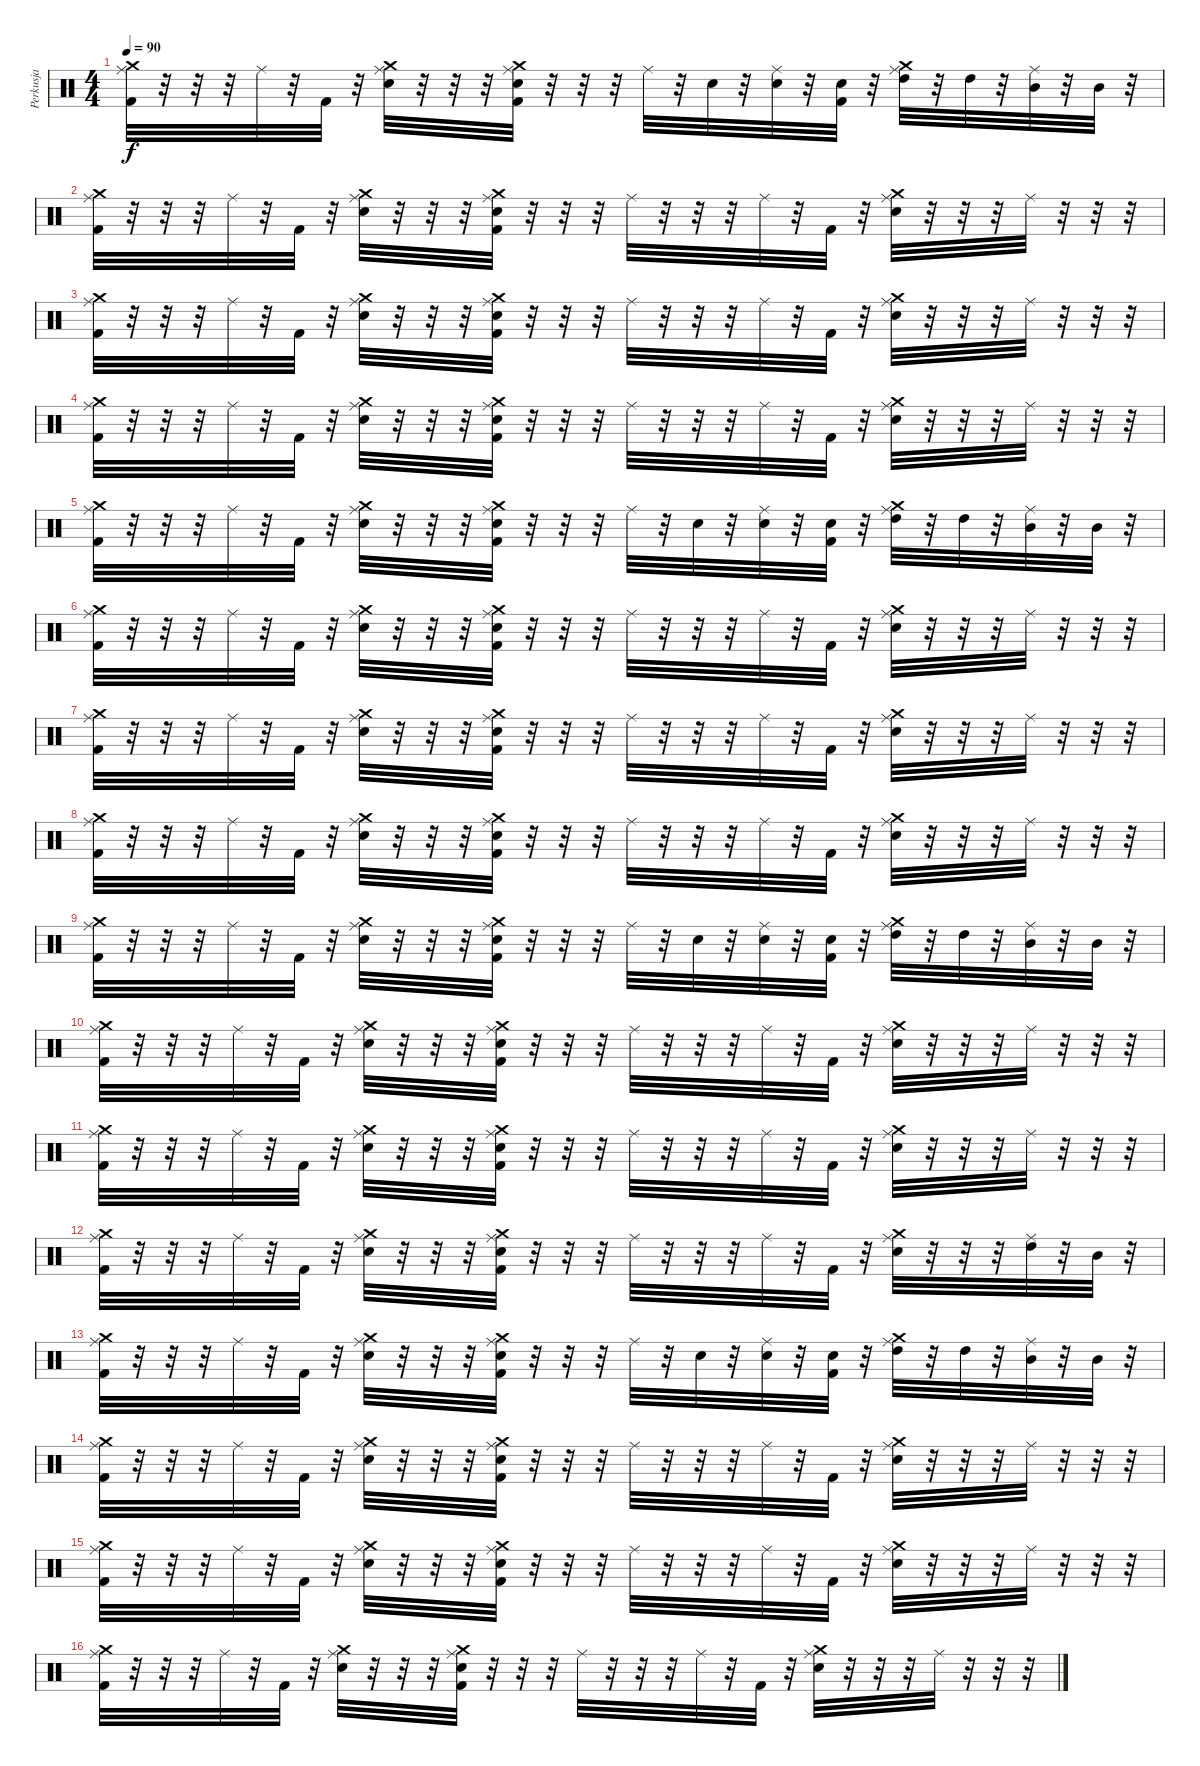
\track ("Perkusja" "Perkusja") {instrument percussion}
\staff {score}
\articulation defaults
\ts (4 4)
\tempo 90
\clef neutral
\ks c
("Crash medium (hit)" "Ride (middle)" "Kick (hit) 2").32{dy f} r.32 r.32 r.32 "Ride (middle)".32 r.32 "Kick (hit) 2".32 r.32 ("Crash medium (hit)" "Ride (middle)" "Electric Snare (hit)").32 r.32 r.32 r.32 ("Crash medium (hit)" "Ride (middle)" "Electric Snare (hit)" "Kick (hit) 2").32 r.32 r.32 r.32 "Ride (middle)".32 r.32 "Electric Snare (hit)".32 r.32 ("Ride (middle)" "Electric Snare (hit)").32 r.32 ("Electric Snare (hit)" "Kick (hit) 2").32 r.32 ("Crash medium (hit)" "Ride (middle)" "High Tom (hit)").32 r.32 "High Tom (hit)".32 r.32 ("Ride (middle)" "Mid Tom (hit)").32 r.32 "Mid Tom (hit)".32 r.32 |
("Crash medium (hit)" "Ride (middle)" "Kick (hit) 2").32 r.32 r.32 r.32 "Ride (middle)".32 r.32 "Kick (hit) 2".32 r.32 ("Crash medium (hit)" "Ride (middle)" "Electric Snare (hit)").32 r.32 r.32 r.32 ("Crash medium (hit)" "Ride (middle)" "Electric Snare (hit)" "Kick (hit) 2").32 r.32 r.32 r.32 "Ride (middle)".32 r.32 r.32 r.32 "Ride (middle)".32 r.32 "Kick (hit) 2".32 r.32 ("Crash medium (hit)" "Ride (middle)" "Electric Snare (hit)").32 r.32 r.32 r.32 "Ride (middle)".32 r.32 r.32 r.32 |
("Crash medium (hit)" "Ride (middle)" "Kick (hit) 2").32 r.32 r.32 r.32 "Ride (middle)".32 r.32 "Kick (hit) 2".32 r.32 ("Crash medium (hit)" "Ride (middle)" "Electric Snare (hit)").32 r.32 r.32 r.32 ("Crash medium (hit)" "Ride (middle)" "Electric Snare (hit)" "Kick (hit) 2").32 r.32 r.32 r.32 "Ride (middle)".32 r.32 r.32 r.32 "Ride (middle)".32 r.32 "Kick (hit) 2".32 r.32 ("Crash medium (hit)" "Ride (middle)" "Electric Snare (hit)").32 r.32 r.32 r.32 "Ride (middle)".32 r.32 r.32 r.32 |
("Crash medium (hit)" "Ride (middle)" "Kick (hit) 2").32 r.32 r.32 r.32 "Ride (middle)".32 r.32 "Kick (hit) 2".32 r.32 ("Crash medium (hit)" "Ride (middle)" "Electric Snare (hit)").32 r.32 r.32 r.32 ("Crash medium (hit)" "Ride (middle)" "Electric Snare (hit)" "Kick (hit) 2").32 r.32 r.32 r.32 "Ride (middle)".32 r.32 r.32 r.32 "Ride (middle)".32 r.32 "Kick (hit) 2".32 r.32 ("Crash medium (hit)" "Ride (middle)" "Electric Snare (hit)").32 r.32 r.32 r.32 "Ride (middle)".32 r.32 r.32 r.32 |
("Crash medium (hit)" "Ride (middle)" "Kick (hit) 2").32 r.32 r.32 r.32 "Ride (middle)".32 r.32 "Kick (hit) 2".32 r.32 ("Crash medium (hit)" "Ride (middle)" "Electric Snare (hit)").32 r.32 r.32 r.32 ("Crash medium (hit)" "Ride (middle)" "Electric Snare (hit)" "Kick (hit) 2").32 r.32 r.32 r.32 "Ride (middle)".32 r.32 "Electric Snare (hit)".32 r.32 ("Ride (middle)" "Electric Snare (hit)").32 r.32 ("Electric Snare (hit)" "Kick (hit) 2").32 r.32 ("Crash medium (hit)" "Ride (middle)" "High Tom (hit)").32 r.32 "High Tom (hit)".32 r.32 ("Ride (middle)" "Mid Tom (hit)").32 r.32 "Mid Tom (hit)".32 r.32 |
("Crash medium (hit)" "Ride (middle)" "Kick (hit) 2").32 r.32 r.32 r.32 "Ride (middle)".32 r.32 "Kick (hit) 2".32 r.32 ("Crash medium (hit)" "Ride (middle)" "Electric Snare (hit)").32 r.32 r.32 r.32 ("Crash medium (hit)" "Ride (middle)" "Electric Snare (hit)" "Kick (hit) 2").32 r.32 r.32 r.32 "Ride (middle)".32 r.32 r.32 r.32 "Ride (middle)".32 r.32 "Kick (hit) 2".32 r.32 ("Crash medium (hit)" "Ride (middle)" "Electric Snare (hit)").32 r.32 r.32 r.32 "Ride (middle)".32 r.32 r.32 r.32 |
("Crash medium (hit)" "Ride (middle)" "Kick (hit) 2").32 r.32 r.32 r.32 "Ride (middle)".32 r.32 "Kick (hit) 2".32 r.32 ("Crash medium (hit)" "Ride (middle)" "Electric Snare (hit)").32 r.32 r.32 r.32 ("Crash medium (hit)" "Ride (middle)" "Electric Snare (hit)" "Kick (hit) 2").32 r.32 r.32 r.32 "Ride (middle)".32 r.32 r.32 r.32 "Ride (middle)".32 r.32 "Kick (hit) 2".32 r.32 ("Crash medium (hit)" "Ride (middle)" "Electric Snare (hit)").32 r.32 r.32 r.32 "Ride (middle)".32 r.32 r.32 r.32 |
("Crash medium (hit)" "Ride (middle)" "Kick (hit) 2").32 r.32 r.32 r.32 "Ride (middle)".32 r.32 "Kick (hit) 2".32 r.32 ("Crash medium (hit)" "Ride (middle)" "Electric Snare (hit)").32 r.32 r.32 r.32 ("Crash medium (hit)" "Ride (middle)" "Electric Snare (hit)" "Kick (hit) 2").32 r.32 r.32 r.32 "Ride (middle)".32 r.32 r.32 r.32 "Ride (middle)".32 r.32 "Kick (hit) 2".32 r.32 ("Crash medium (hit)" "Ride (middle)" "Electric Snare (hit)").32 r.32 r.32 r.32 "Ride (middle)".32 r.32 r.32 r.32 |
("Crash medium (hit)" "Ride (middle)" "Kick (hit) 2").32 r.32 r.32 r.32 "Ride (middle)".32 r.32 "Kick (hit) 2".32 r.32 ("Crash medium (hit)" "Ride (middle)" "Electric Snare (hit)").32 r.32 r.32 r.32 ("Crash medium (hit)" "Ride (middle)" "Electric Snare (hit)" "Kick (hit) 2").32 r.32 r.32 r.32 "Ride (middle)".32 r.32 "Electric Snare (hit)".32 r.32 ("Ride (middle)" "Electric Snare (hit)").32 r.32 ("Electric Snare (hit)" "Kick (hit) 2").32 r.32 ("Crash medium (hit)" "Ride (middle)" "High Tom (hit)").32 r.32 "High Tom (hit)".32 r.32 ("Ride (middle)" "Mid Tom (hit)").32 r.32 "Mid Tom (hit)".32 r.32 |
("Crash medium (hit)" "Ride (middle)" "Kick (hit) 2").32 r.32 r.32 r.32 "Ride (middle)".32 r.32 "Kick (hit) 2".32 r.32 ("Crash medium (hit)" "Ride (middle)" "Electric Snare (hit)").32 r.32 r.32 r.32 ("Crash medium (hit)" "Ride (middle)" "Electric Snare (hit)" "Kick (hit) 2").32 r.32 r.32 r.32 "Ride (middle)".32 r.32 r.32 r.32 "Ride (middle)".32 r.32 "Kick (hit) 2".32 r.32 ("Crash medium (hit)" "Ride (middle)" "Electric Snare (hit)").32 r.32 r.32 r.32 "Ride (middle)".32 r.32 r.32 r.32 |
("Crash medium (hit)" "Ride (middle)" "Kick (hit) 2").32 r.32 r.32 r.32 "Ride (middle)".32 r.32 "Kick (hit) 2".32 r.32 ("Crash medium (hit)" "Ride (middle)" "Electric Snare (hit)").32 r.32 r.32 r.32 ("Crash medium (hit)" "Ride (middle)" "Electric Snare (hit)" "Kick (hit) 2").32 r.32 r.32 r.32 "Ride (middle)".32 r.32 r.32 r.32 "Ride (middle)".32 r.32 "Kick (hit) 2".32 r.32 ("Crash medium (hit)" "Ride (middle)" "Electric Snare (hit)").32 r.32 r.32 r.32 "Ride (middle)".32 r.32 r.32 r.32 |
("Crash medium (hit)" "Ride (middle)" "Kick (hit) 2").32 r.32 r.32 r.32 "Ride (middle)".32 r.32 "Kick (hit) 2".32 r.32 ("Crash medium (hit)" "Ride (middle)" "Electric Snare (hit)").32 r.32 r.32 r.32 ("Crash medium (hit)" "Ride (middle)" "Electric Snare (hit)" "Kick (hit) 2").32 r.32 r.32 r.32 "Ride (middle)".32 r.32 r.32 r.32 "Ride (middle)".32 r.32 "Kick (hit) 2".32 r.32 ("Crash medium (hit)" "Ride (middle)" "Electric Snare (hit)").32 r.32 r.32 r.32 ("Ride (middle)" "High Tom (hit)").32 r.32 "Mid Tom (hit)".32 r.32 |
("Crash medium (hit)" "Ride (middle)" "Kick (hit) 2").32 r.32 r.32 r.32 "Ride (middle)".32 r.32 "Kick (hit) 2".32 r.32 ("Crash medium (hit)" "Ride (middle)" "Electric Snare (hit)").32 r.32 r.32 r.32 ("Crash medium (hit)" "Ride (middle)" "Electric Snare (hit)" "Kick (hit) 2").32 r.32 r.32 r.32 "Ride (middle)".32 r.32 "Electric Snare (hit)".32 r.32 ("Ride (middle)" "Electric Snare (hit)").32 r.32 ("Electric Snare (hit)" "Kick (hit) 2").32 r.32 ("Crash medium (hit)" "Ride (middle)" "High Tom (hit)").32 r.32 "High Tom (hit)".32 r.32 ("Ride (middle)" "Mid Tom (hit)").32 r.32 "Mid Tom (hit)".32 r.32 |
("Crash medium (hit)" "Ride (middle)" "Kick (hit) 2").32 r.32 r.32 r.32 "Ride (middle)".32 r.32 "Kick (hit) 2".32 r.32 ("Crash medium (hit)" "Ride (middle)" "Electric Snare (hit)").32 r.32 r.32 r.32 ("Crash medium (hit)" "Ride (middle)" "Electric Snare (hit)" "Kick (hit) 2").32 r.32 r.32 r.32 "Ride (middle)".32 r.32 r.32 r.32 "Ride (middle)".32 r.32 "Kick (hit) 2".32 r.32 ("Crash medium (hit)" "Ride (middle)" "Electric Snare (hit)").32 r.32 r.32 r.32 "Ride (middle)".32 r.32 r.32 r.32 |
("Crash medium (hit)" "Ride (middle)" "Kick (hit) 2").32 r.32 r.32 r.32 "Ride (middle)".32 r.32 "Kick (hit) 2".32 r.32 ("Crash medium (hit)" "Ride (middle)" "Electric Snare (hit)").32 r.32 r.32 r.32 ("Crash medium (hit)" "Ride (middle)" "Electric Snare (hit)" "Kick (hit) 2").32 r.32 r.32 r.32 "Ride (middle)".32 r.32 r.32 r.32 "Ride (middle)".32 r.32 "Kick (hit) 2".32 r.32 ("Crash medium (hit)" "Ride (middle)" "Electric Snare (hit)").32 r.32 r.32 r.32 "Ride (middle)".32 r.32 r.32 r.32 |
("Crash medium (hit)" "Ride (middle)" "Kick (hit) 2").32 r.32 r.32 r.32 "Ride (middle)".32 r.32 "Kick (hit) 2".32 r.32 ("Crash medium (hit)" "Ride (middle)" "Electric Snare (hit)").32 r.32 r.32 r.32 ("Crash medium (hit)" "Ride (middle)" "Electric Snare (hit)" "Kick (hit) 2").32 r.32 r.32 r.32 "Ride (middle)".32 r.32 r.32 r.32 "Ride (middle)".32 r.32 "Kick (hit) 2".32 r.32 ("Crash medium (hit)" "Ride (middle)" "Electric Snare (hit)").32 r.32 r.32 r.32 "Ride (middle)".32 r.32 r.32 r.32
